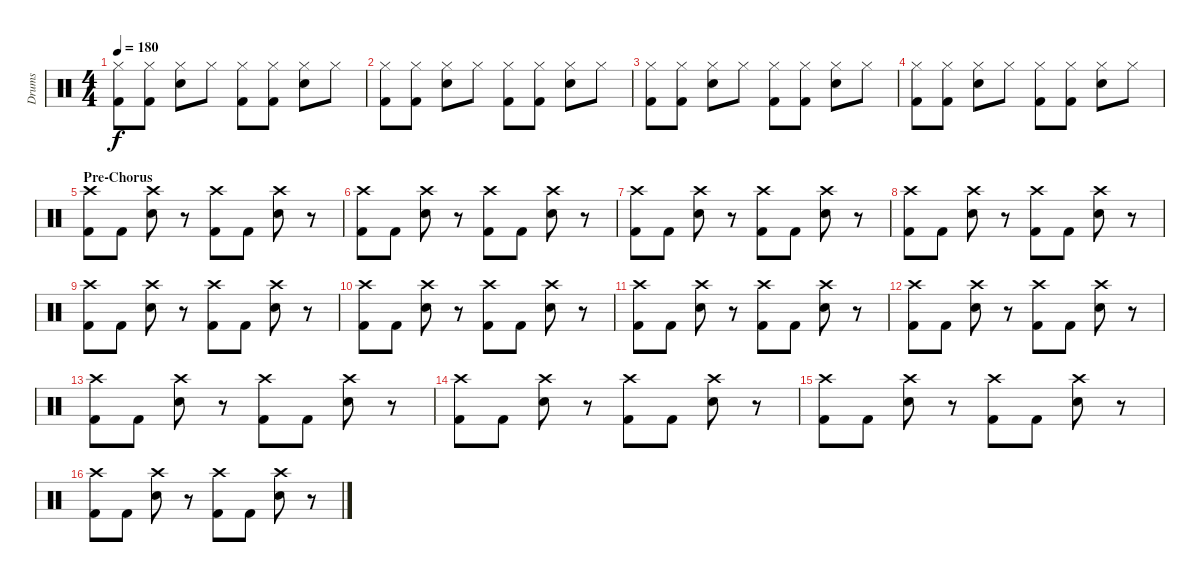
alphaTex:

\track ("Drums" "Drums") {instrument percussion}
\staff {score}
\articulation defaults
\ts (4 4)
\tempo 180
\clef neutral
\ks c
("Hi-Hat (closed)" "Kick (hit) 2").8{dy f} ("Hi-Hat (closed)" "Kick (hit) 2").8 ("Hi-Hat (closed)" "Snare (hit) 2").8 "Hi-Hat (closed)".8 ("Hi-Hat (closed)" "Kick (hit) 2").8 ("Hi-Hat (closed)" "Kick (hit) 2").8 ("Hi-Hat (closed)" "Snare (hit) 2").8 "Hi-Hat (closed)".8 |
("Hi-Hat (closed)" "Kick (hit) 2").8 ("Hi-Hat (closed)" "Kick (hit) 2").8 ("Hi-Hat (closed)" "Snare (hit) 2").8 "Hi-Hat (closed)".8 ("Hi-Hat (closed)" "Kick (hit) 2").8 ("Hi-Hat (closed)" "Kick (hit) 2").8 ("Hi-Hat (closed)" "Snare (hit) 2").8 "Hi-Hat (closed)".8 |
("Hi-Hat (closed)" "Kick (hit) 2").8 ("Hi-Hat (closed)" "Kick (hit) 2").8 ("Hi-Hat (closed)" "Snare (hit) 2").8 "Hi-Hat (closed)".8 ("Hi-Hat (closed)" "Kick (hit) 2").8 ("Hi-Hat (closed)" "Kick (hit) 2").8 ("Hi-Hat (closed)" "Snare (hit) 2").8 "Hi-Hat (closed)".8 |
("Hi-Hat (closed)" "Kick (hit) 2").8 ("Hi-Hat (closed)" "Kick (hit) 2").8 ("Hi-Hat (closed)" "Snare (hit) 2").8 "Hi-Hat (closed)".8 ("Hi-Hat (closed)" "Kick (hit) 2").8 ("Hi-Hat (closed)" "Kick (hit) 2").8 ("Hi-Hat (closed)" "Snare (hit) 2").8 "Hi-Hat (closed)".8 |
\section ("" "Pre-Chorus")
("Crash high (hit)" "Kick (hit) 2").8 "Kick (hit) 2".8 ("Crash high (hit)" "Snare (hit) 2").8 r.8 ("Crash high (hit)" "Kick (hit) 2").8 "Kick (hit) 2".8 ("Crash high (hit)" "Snare (hit) 2").8 r.8 |
("Crash high (hit)" "Kick (hit) 2").8 "Kick (hit) 2".8 ("Crash high (hit)" "Snare (hit) 2").8 r.8 ("Crash high (hit)" "Kick (hit) 2").8 "Kick (hit) 2".8 ("Crash high (hit)" "Snare (hit) 2").8 r.8 |
("Crash high (hit)" "Kick (hit) 2").8 "Kick (hit) 2".8 ("Crash high (hit)" "Snare (hit) 2").8 r.8 ("Crash high (hit)" "Kick (hit) 2").8 "Kick (hit) 2".8 ("Crash high (hit)" "Snare (hit) 2").8 r.8 |
("Crash high (hit)" "Kick (hit) 2").8 "Kick (hit) 2".8 ("Crash high (hit)" "Snare (hit) 2").8 r.8 ("Crash high (hit)" "Kick (hit) 2").8 "Kick (hit) 2".8 ("Crash high (hit)" "Snare (hit) 2").8 r.8 |
("Crash high (hit)" "Kick (hit) 2").8 "Kick (hit) 2".8 ("Crash high (hit)" "Snare (hit) 2").8 r.8 ("Crash high (hit)" "Kick (hit) 2").8 "Kick (hit) 2".8 ("Crash high (hit)" "Snare (hit) 2").8 r.8 |
("Crash high (hit)" "Kick (hit) 2").8 "Kick (hit) 2".8 ("Crash high (hit)" "Snare (hit) 2").8 r.8 ("Crash high (hit)" "Kick (hit) 2").8 "Kick (hit) 2".8 ("Crash high (hit)" "Snare (hit) 2").8 r.8 |
("Crash high (hit)" "Kick (hit) 2").8 "Kick (hit) 2".8 ("Crash high (hit)" "Snare (hit) 2").8 r.8 ("Crash high (hit)" "Kick (hit) 2").8 "Kick (hit) 2".8 ("Crash high (hit)" "Snare (hit) 2").8 r.8 |
("Crash high (hit)" "Kick (hit) 2").8 "Kick (hit) 2".8 ("Crash high (hit)" "Snare (hit) 2").8 r.8 ("Crash high (hit)" "Kick (hit) 2").8 "Kick (hit) 2".8 ("Crash high (hit)" "Snare (hit) 2").8 r.8 |
("Crash high (hit)" "Kick (hit) 2").8 "Kick (hit) 2".8 ("Crash high (hit)" "Snare (hit) 2").8 r.8 ("Crash high (hit)" "Kick (hit) 2").8 "Kick (hit) 2".8 ("Crash high (hit)" "Snare (hit) 2").8 r.8 |
("Crash high (hit)" "Kick (hit) 2").8 "Kick (hit) 2".8 ("Crash high (hit)" "Snare (hit) 2").8 r.8 ("Crash high (hit)" "Kick (hit) 2").8 "Kick (hit) 2".8 ("Crash high (hit)" "Snare (hit) 2").8 r.8 |
("Crash high (hit)" "Kick (hit) 2").8 "Kick (hit) 2".8 ("Crash high (hit)" "Snare (hit) 2").8 r.8 ("Crash high (hit)" "Kick (hit) 2").8 "Kick (hit) 2".8 ("Crash high (hit)" "Snare (hit) 2").8 r.8 |
("Crash high (hit)" "Kick (hit) 2").8 "Kick (hit) 2".8 ("Crash high (hit)" "Snare (hit) 2").8 r.8 ("Crash high (hit)" "Kick (hit) 2").8 "Kick (hit) 2".8 ("Crash high (hit)" "Snare (hit) 2").8 r.8
